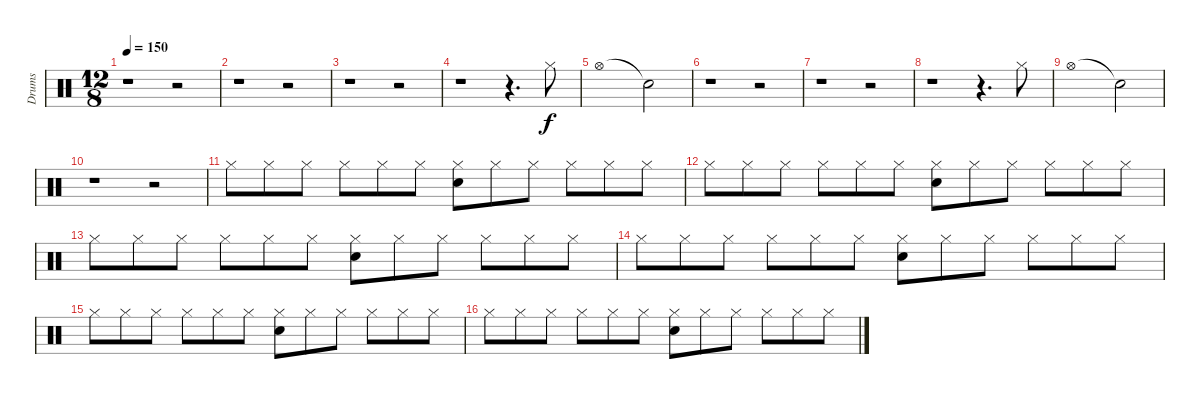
\track ("Drums" "Drums") {instrument percussion}
\staff {score}
\articulation defaults
\ts (12 8)
\tempo 150
\clef neutral
\ks c
r.1{dy f} r.2 |
r.1 r.2 |
r.1 r.2 |
r.1 r.4{d} "Hi-Hat (closed)".8 |
"Hi-Hat (open)".1 "Snare (hit)"{t}.2 |
r.1 r.2 |
r.1 r.2 |
r.1 r.4{d} "Hi-Hat (closed)".8 |
"Hi-Hat (open)".1 "Snare (hit)"{t}.2 |
r.1 r.2 |
"Hi-Hat (closed)".8 "Hi-Hat (closed)".8 "Hi-Hat (closed)".8 "Hi-Hat (closed)".8 "Hi-Hat (closed)".8 "Hi-Hat (closed)".8 ("Hi-Hat (closed)" "Snare (hit) 2").8 "Hi-Hat (closed)".8 "Hi-Hat (closed)".8 "Hi-Hat (closed)".8 "Hi-Hat (closed)".8 "Hi-Hat (closed)".8 |
"Hi-Hat (closed)".8 "Hi-Hat (closed)".8 "Hi-Hat (closed)".8 "Hi-Hat (closed)".8 "Hi-Hat (closed)".8 "Hi-Hat (closed)".8 ("Hi-Hat (closed)" "Snare (hit) 2").8 "Hi-Hat (closed)".8 "Hi-Hat (closed)".8 "Hi-Hat (closed)".8 "Hi-Hat (closed)".8 "Hi-Hat (closed)".8 |
"Hi-Hat (closed)".8 "Hi-Hat (closed)".8 "Hi-Hat (closed)".8 "Hi-Hat (closed)".8 "Hi-Hat (closed)".8 "Hi-Hat (closed)".8 ("Hi-Hat (closed)" "Snare (hit) 2").8 "Hi-Hat (closed)".8 "Hi-Hat (closed)".8 "Hi-Hat (closed)".8 "Hi-Hat (closed)".8 "Hi-Hat (closed)".8 |
"Hi-Hat (closed)".8 "Hi-Hat (closed)".8 "Hi-Hat (closed)".8 "Hi-Hat (closed)".8 "Hi-Hat (closed)".8 "Hi-Hat (closed)".8 ("Hi-Hat (closed)" "Snare (hit) 2").8 "Hi-Hat (closed)".8 "Hi-Hat (closed)".8 "Hi-Hat (closed)".8 "Hi-Hat (closed)".8 "Hi-Hat (closed)".8 |
"Hi-Hat (closed)".8 "Hi-Hat (closed)".8 "Hi-Hat (closed)".8 "Hi-Hat (closed)".8 "Hi-Hat (closed)".8 "Hi-Hat (closed)".8 ("Hi-Hat (closed)" "Snare (hit) 2").8 "Hi-Hat (closed)".8 "Hi-Hat (closed)".8 "Hi-Hat (closed)".8 "Hi-Hat (closed)".8 "Hi-Hat (closed)".8 |
"Hi-Hat (closed)".8 "Hi-Hat (closed)".8 "Hi-Hat (closed)".8 "Hi-Hat (closed)".8 "Hi-Hat (closed)".8 "Hi-Hat (closed)".8 ("Hi-Hat (closed)" "Snare (hit) 2").8 "Hi-Hat (closed)".8 "Hi-Hat (closed)".8 "Hi-Hat (closed)".8 "Hi-Hat (closed)".8 "Hi-Hat (closed)".8
